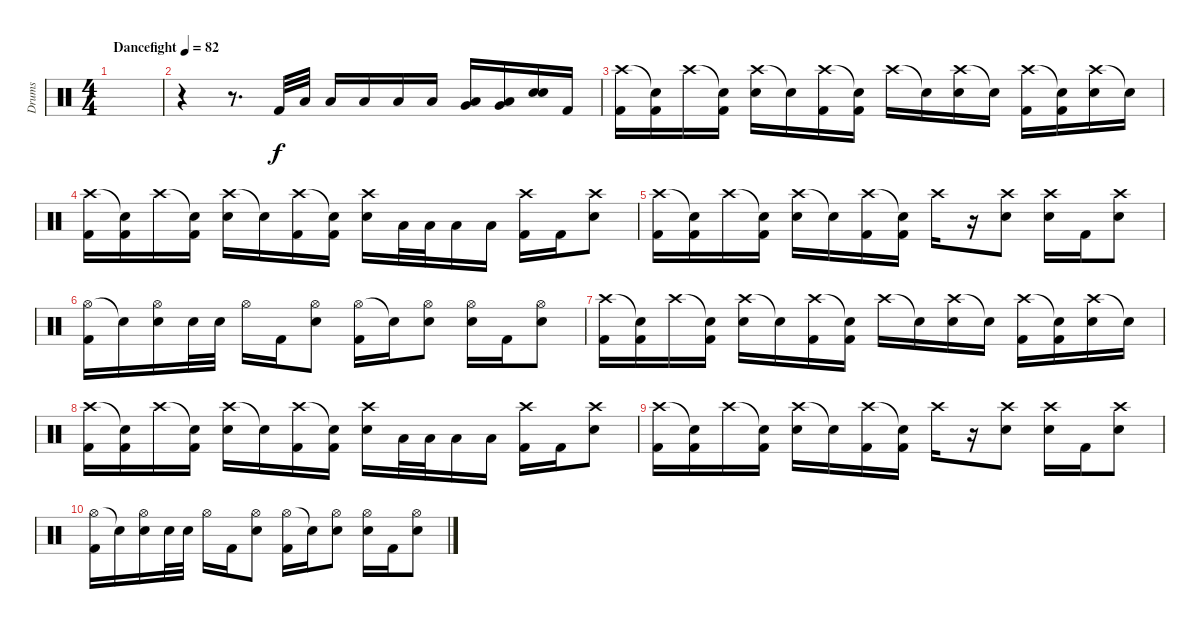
\track ("Drums" "Drums") {instrument percussion}
\staff {score}
\articulation defaults
\ts (4 4)
\tempo (82 "Dancefight")
\clef neutral
\ks c
|
r.4 r.8{d} "Kick (hit) 2".32 "Low Tom (hit)".32 "Low Tom (hit)".16 "Low Tom (hit)".16 "Low Tom (hit)".16 "Low Tom (hit)".16 ("Very Low Tom (hit)" "Low Floor Tom (hit)").16 ("Very Low Tom (hit)" "Low Floor Tom (hit)").16 ("Electric Snare (hit)" "Electric Snare (hit)").16 "Kick (hit) 2".16 |
("Crash high (hit)" "Kick (hit) 2").16 ("Snare (hit)"{t} "Kick (hit) 2").16 "Crash high (hit)".16 ("Snare (hit)"{t} "Kick (hit) 2").16 ("Crash high (hit)" "Electric Snare (hit)").16 "Snare (hit)"{t}.16 ("Crash high (hit)" "Kick (hit) 2").16 ("Snare (hit)"{t} "Kick (hit) 2").16 "Crash high (hit)".16 "Snare (hit)"{t}.16 ("Crash high (hit)" "Electric Snare (hit)").16 "Snare (hit)"{t}.16 ("Crash high (hit)" "Kick (hit) 2").16 ("Snare (hit)"{t} "Kick (hit) 2").16 ("Crash high (hit)" "Electric Snare (hit)").16 "Snare (hit)"{t}.16 |
("Crash high (hit)" "Kick (hit) 2").16 ("Snare (hit)"{t} "Kick (hit) 2").16 "Crash high (hit)".16 ("Snare (hit)"{t} "Kick (hit) 2").16 ("Crash high (hit)" "Electric Snare (hit)").16 "Snare (hit)"{t}.16 ("Crash high (hit)" "Kick (hit) 2").16 ("Snare (hit)"{t} "Kick (hit) 2").16 ("Crash high (hit)" "Electric Snare (hit)").16 "Low Tom (hit)".32 "Low Tom (hit)".32 "Low Tom (hit)".16 "Low Tom (hit)".16 ("Crash high (hit)" "Kick (hit) 2").16 "Kick (hit) 2".16 ("Crash high (hit)" "Electric Snare (hit)").8 |
("Crash high (hit)" "Kick (hit) 2").16 ("Snare (hit)"{t} "Kick (hit) 2").16 "Crash high (hit)".16 ("Snare (hit)"{t} "Kick (hit) 2").16 ("Crash high (hit)" "Electric Snare (hit)").16 "Snare (hit)"{t}.16 ("Crash high (hit)" "Kick (hit) 2").16 ("Snare (hit)"{t} "Kick (hit) 2").16 "Crash high (hit)".16 r.16 ("Crash high (hit)" "Electric Snare (hit)").8 ("Crash high (hit)" "Electric Snare (hit)").16 "Kick (hit) 2".16 ("Crash high (hit)" "Electric Snare (hit)").8 |
("Hi-Hat (open)" "Kick (hit) 2").16 "Snare (hit)"{t}.16 ("Hi-Hat (open)" "Electric Snare (hit)").16 "Electric Snare (hit)".32 "Electric Snare (hit)".32 "Hi-Hat (open)".16 "Kick (hit) 2".16 ("Hi-Hat (open)" "Electric Snare (hit)").8 ("Hi-Hat (open)" "Kick (hit) 2").16 "Snare (hit)"{t}.16 ("Hi-Hat (open)" "Electric Snare (hit)").8 ("Hi-Hat (open)" "Electric Snare (hit)").16 "Kick (hit) 2".16 ("Hi-Hat (open)" "Electric Snare (hit)").8 |
("Crash high (hit)" "Kick (hit) 2").16 ("Snare (hit)"{t} "Kick (hit) 2").16 "Crash high (hit)".16 ("Snare (hit)"{t} "Kick (hit) 2").16 ("Crash high (hit)" "Electric Snare (hit)").16 "Snare (hit)"{t}.16 ("Crash high (hit)" "Kick (hit) 2").16 ("Snare (hit)"{t} "Kick (hit) 2").16 "Crash high (hit)".16 "Snare (hit)"{t}.16 ("Crash high (hit)" "Electric Snare (hit)").16 "Snare (hit)"{t}.16 ("Crash high (hit)" "Kick (hit) 2").16 ("Snare (hit)"{t} "Kick (hit) 2").16 ("Crash high (hit)" "Electric Snare (hit)").16 "Snare (hit)"{t}.16 |
("Crash high (hit)" "Kick (hit) 2").16 ("Snare (hit)"{t} "Kick (hit) 2").16 "Crash high (hit)".16 ("Snare (hit)"{t} "Kick (hit) 2").16 ("Crash high (hit)" "Electric Snare (hit)").16 "Snare (hit)"{t}.16 ("Crash high (hit)" "Kick (hit) 2").16 ("Snare (hit)"{t} "Kick (hit) 2").16 ("Crash high (hit)" "Electric Snare (hit)").16 "Low Tom (hit)".32 "Low Tom (hit)".32 "Low Tom (hit)".16 "Low Tom (hit)".16 ("Crash high (hit)" "Kick (hit) 2").16 "Kick (hit) 2".16 ("Crash high (hit)" "Electric Snare (hit)").8 |
("Crash high (hit)" "Kick (hit) 2").16 ("Snare (hit)"{t} "Kick (hit) 2").16 "Crash high (hit)".16 ("Snare (hit)"{t} "Kick (hit) 2").16 ("Crash high (hit)" "Electric Snare (hit)").16 "Snare (hit)"{t}.16 ("Crash high (hit)" "Kick (hit) 2").16 ("Snare (hit)"{t} "Kick (hit) 2").16 "Crash high (hit)".16 r.16 ("Crash high (hit)" "Electric Snare (hit)").8 ("Crash high (hit)" "Electric Snare (hit)").16 "Kick (hit) 2".16 ("Crash high (hit)" "Electric Snare (hit)").8 |
("Hi-Hat (open)" "Kick (hit) 2").16 "Snare (hit)"{t}.16 ("Hi-Hat (open)" "Electric Snare (hit)").16 "Electric Snare (hit)".32 "Electric Snare (hit)".32 "Hi-Hat (open)".16 "Kick (hit) 2".16 ("Hi-Hat (open)" "Electric Snare (hit)").8 ("Hi-Hat (open)" "Kick (hit) 2").16 "Snare (hit)"{t}.16 ("Hi-Hat (open)" "Electric Snare (hit)").8 ("Hi-Hat (open)" "Electric Snare (hit)").16 "Kick (hit) 2".16 ("Hi-Hat (open)" "Electric Snare (hit)").8
